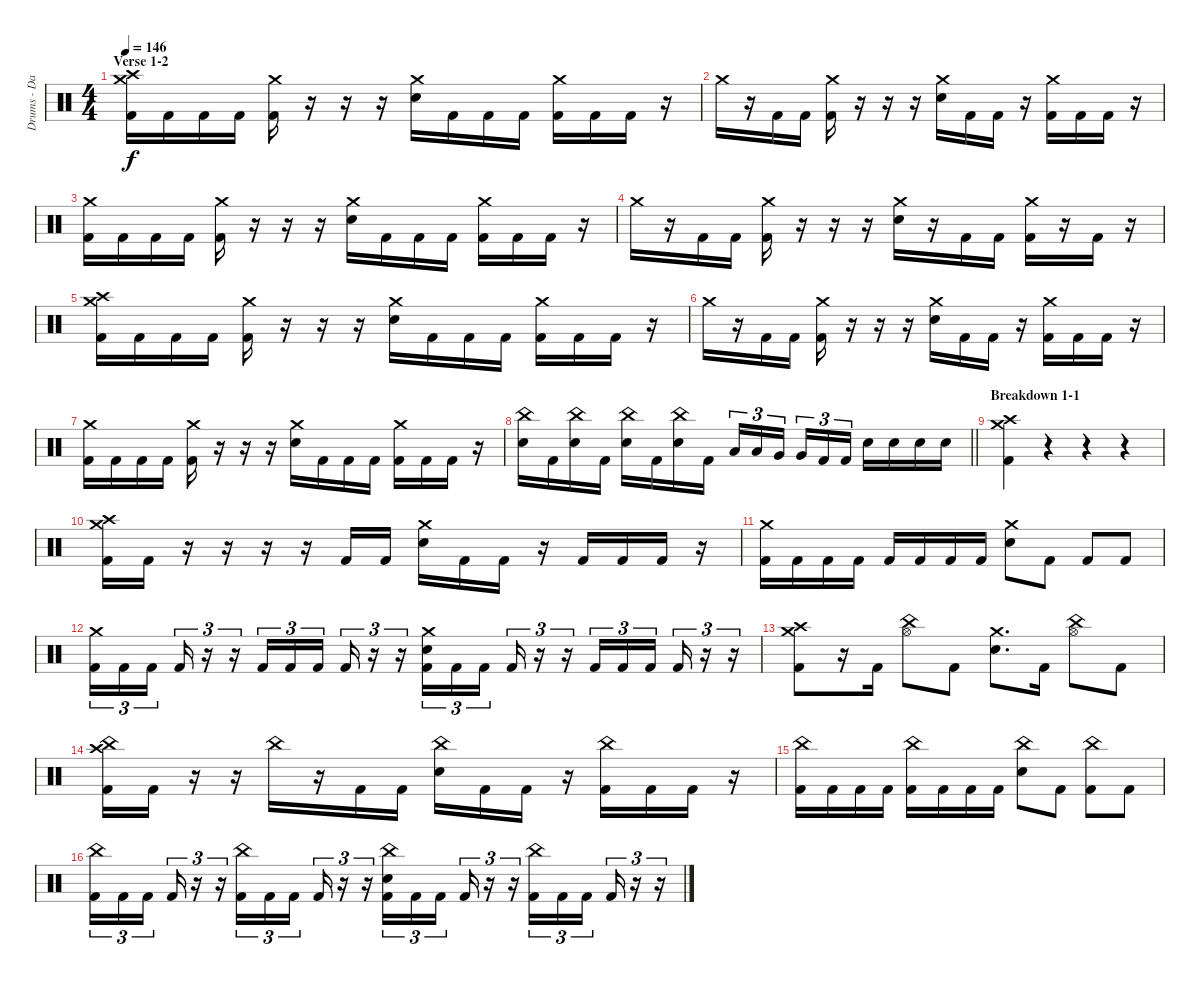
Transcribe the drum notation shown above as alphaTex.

\track ("Drums - DaDa" "Drums - Da") {instrument percussion}
\staff {score}
\articulation defaults
\ts (4 4)
\section ("" "Verse 1-2")
\tempo 146
\clef neutral
\ks c
("Crash medium (hit)" "Crash high (hit)" "Kick (hit) 2").16{dy f} "Kick (hit) 2".16 "Kick (hit) 2".16 "Kick (hit) 2".16 ("Crash medium (hit)" "Kick (hit) 2").16 r.16 r.16 r.16 ("Crash medium (hit)" "Electric Snare (hit)").16 "Kick (hit) 2".16 "Kick (hit) 2".16 "Kick (hit) 2".16 ("Crash medium (hit)" "Kick (hit) 2").16 "Kick (hit) 2".16 "Kick (hit) 2".16 r.16 |
"Crash medium (hit)".16 r.16 "Kick (hit) 2".16 "Kick (hit) 2".16 ("Crash medium (hit)" "Kick (hit) 2").16 r.16 r.16 r.16 ("Crash medium (hit)" "Electric Snare (hit)").16 "Kick (hit) 2".16 "Kick (hit) 2".16 r.16 ("Crash medium (hit)" "Kick (hit) 2").16 "Kick (hit) 2".16 "Kick (hit) 2".16 r.16 |
("Crash medium (hit)" "Kick (hit) 2").16 "Kick (hit) 2".16 "Kick (hit) 2".16 "Kick (hit) 2".16 ("Crash medium (hit)" "Kick (hit) 2").16 r.16 r.16 r.16 ("Crash medium (hit)" "Electric Snare (hit)").16 "Kick (hit) 2".16 "Kick (hit) 2".16 "Kick (hit) 2".16 ("Crash medium (hit)" "Kick (hit) 2").16 "Kick (hit) 2".16 "Kick (hit) 2".16 r.16 |
"Crash medium (hit)".16 r.16 "Kick (hit) 2".16 "Kick (hit) 2".16 ("Crash medium (hit)" "Kick (hit) 2").16 r.16 r.16 r.16 ("Crash medium (hit)" "Electric Snare (hit)").16 r.16 "Kick (hit) 2".16 "Kick (hit) 2".16 ("Crash medium (hit)" "Kick (hit) 2").16 r.16 "Kick (hit) 2".16 r.16 |
("Crash medium (hit)" "Crash high (hit)" "Kick (hit) 2").16 "Kick (hit) 2".16 "Kick (hit) 2".16 "Kick (hit) 2".16 ("Crash medium (hit)" "Kick (hit) 2").16 r.16 r.16 r.16 ("Crash medium (hit)" "Electric Snare (hit)").16 "Kick (hit) 2".16 "Kick (hit) 2".16 "Kick (hit) 2".16 ("Crash medium (hit)" "Kick (hit) 2").16 "Kick (hit) 2".16 "Kick (hit) 2".16 r.16 |
"Crash medium (hit)".16 r.16 "Kick (hit) 2".16 "Kick (hit) 2".16 ("Crash medium (hit)" "Kick (hit) 2").16 r.16 r.16 r.16 ("Crash medium (hit)" "Electric Snare (hit)").16 "Kick (hit) 2".16 "Kick (hit) 2".16 r.16 ("Crash medium (hit)" "Kick (hit) 2").16 "Kick (hit) 2".16 "Kick (hit) 2".16 r.16 |
("Crash medium (hit)" "Kick (hit) 2").16 "Kick (hit) 2".16 "Kick (hit) 2".16 "Kick (hit) 2".16 ("Crash medium (hit)" "Kick (hit) 2").16 r.16 r.16 r.16 ("Crash medium (hit)" "Electric Snare (hit)").16 "Kick (hit) 2".16 "Kick (hit) 2".16 "Kick (hit) 2".16 ("Crash medium (hit)" "Kick (hit) 2").16 "Kick (hit) 2".16 "Kick (hit) 2".16 r.16 |
\barLineRight lightlight
("China (hit)" "Electric Snare (hit)").16 "Kick (hit) 2".16 ("China (hit)" "Electric Snare (hit)").16 "Kick (hit) 2".16 ("China (hit)" "Electric Snare (hit)").16 "Kick (hit) 2".16 ("China (hit)" "Electric Snare (hit)").16 "Kick (hit) 2".16 "Low Tom (hit)".16{tu (3 2)} "Low Tom (hit)".16{tu (3 2)} "Very Low Tom (hit)".16{tu (3 2) beam splitsecondary} "Very Low Tom (hit)".16{tu (3 2)} "Kick (hit) 2".16{tu (3 2)} "Kick (hit) 2".16{tu (3 2)} "Electric Snare (hit)".16 "Electric Snare (hit)".16 "Electric Snare (hit)".16 "Electric Snare (hit)".16 |
\section ("" "Breakdown 1-1")
("Crash medium (hit)" "Crash high (hit)" "Kick (hit) 2").4 r.4 r.4 r.4 |
("Crash medium (hit)" "Crash high (hit)" "Kick (hit) 2").16 "Kick (hit) 2".16 r.16 r.16 r.16 r.16 "Kick (hit) 2".16 "Kick (hit) 2".16 ("Crash medium (hit)" "Electric Snare (hit)").16 "Kick (hit) 2".16 "Kick (hit) 2".16 r.16 "Kick (hit) 2".16 "Kick (hit) 2".16 "Kick (hit) 2".16 r.16 |
("Crash medium (hit)" "Kick (hit) 2").16 "Kick (hit) 2".16 "Kick (hit) 2".16 "Kick (hit) 2".16 "Kick (hit) 2".16 "Kick (hit) 2".16 "Kick (hit) 2".16 "Kick (hit) 2".16 ("Crash medium (hit)" "Electric Snare (hit)").8 "Kick (hit) 2".8 "Kick (hit) 2".8 "Kick (hit) 2".8 |
("Crash medium (hit)" "Kick (hit) 2").16{tu (3 2)} "Kick (hit) 2".16{tu (3 2)} "Kick (hit) 2".16{tu (3 2) beam splitsecondary} "Kick (hit) 2".16{tu (3 2)} r.16{tu (3 2)} r.16{tu (3 2)} "Kick (hit) 2".16{tu (3 2)} "Kick (hit) 2".16{tu (3 2)} "Kick (hit) 2".16{tu (3 2) beam splitsecondary} "Kick (hit) 2".16{tu (3 2)} r.16{tu (3 2)} r.16{tu (3 2)} ("Crash medium (hit)" "Electric Snare (hit)" "Kick (hit) 2").16{tu (3 2)} "Kick (hit) 2".16{tu (3 2)} "Kick (hit) 2".16{tu (3 2) beam splitsecondary} "Kick (hit) 2".16{tu (3 2)} r.16{tu (3 2)} r.16{tu (3 2)} "Kick (hit) 2".16{tu (3 2)} "Kick (hit) 2".16{tu (3 2)} "Kick (hit) 2".16{tu (3 2) beam splitsecondary} "Kick (hit) 2".16{tu (3 2)} r.16{tu (3 2)} r.16{tu (3 2)} |
("Crash medium (hit)" "Crash high (hit)" "Kick (hit) 2").8 r.16 "Kick (hit) 2".16 ("China (hit)" "Hi-Hat (open)").8 "Kick (hit) 2".8 ("Crash medium (hit)" "Electric Snare (hit)").8{d} "Kick (hit) 2".16 ("China (hit)" "Hi-Hat (open)").8 "Kick (hit) 2".8 |
("China (hit)" "Crash high (hit)" "Kick (hit) 2").16 "Kick (hit) 2".16 r.16 r.16 "China (hit)".16 r.16 "Kick (hit) 2".16 "Kick (hit) 2".16 ("China (hit)" "Electric Snare (hit)").16 "Kick (hit) 2".16 "Kick (hit) 2".16 r.16 ("China (hit)" "Kick (hit) 2").16 "Kick (hit) 2".16 "Kick (hit) 2".16 r.16 |
("China (hit)" "Kick (hit) 2").16 "Kick (hit) 2".16 "Kick (hit) 2".16 "Kick (hit) 2".16 ("China (hit)" "Kick (hit) 2").16 "Kick (hit) 2".16 "Kick (hit) 2".16 "Kick (hit) 2".16 ("China (hit)" "Electric Snare (hit)").8 "Kick (hit) 2".8 ("China (hit)" "Kick (hit) 2").8 "Kick (hit) 2".8 |
("China (hit)" "Kick (hit) 2").16{tu (3 2)} "Kick (hit) 2".16{tu (3 2)} "Kick (hit) 2".16{tu (3 2) beam splitsecondary} "Kick (hit) 2".16{tu (3 2)} r.16{tu (3 2)} r.16{tu (3 2)} ("China (hit)" "Kick (hit) 2").16{tu (3 2)} "Kick (hit) 2".16{tu (3 2)} "Kick (hit) 2".16{tu (3 2) beam splitsecondary} "Kick (hit) 2".16{tu (3 2)} r.16{tu (3 2)} r.16{tu (3 2)} ("China (hit)" "Electric Snare (hit)" "Kick (hit) 2").16{tu (3 2)} "Kick (hit) 2".16{tu (3 2)} "Kick (hit) 2".16{tu (3 2) beam splitsecondary} "Kick (hit) 2".16{tu (3 2)} r.16{tu (3 2)} r.16{tu (3 2)} ("China (hit)" "Kick (hit) 2").16{tu (3 2)} "Kick (hit) 2".16{tu (3 2)} "Kick (hit) 2".16{tu (3 2) beam splitsecondary} "Kick (hit) 2".16{tu (3 2)} r.16{tu (3 2)} r.16{tu (3 2)}
